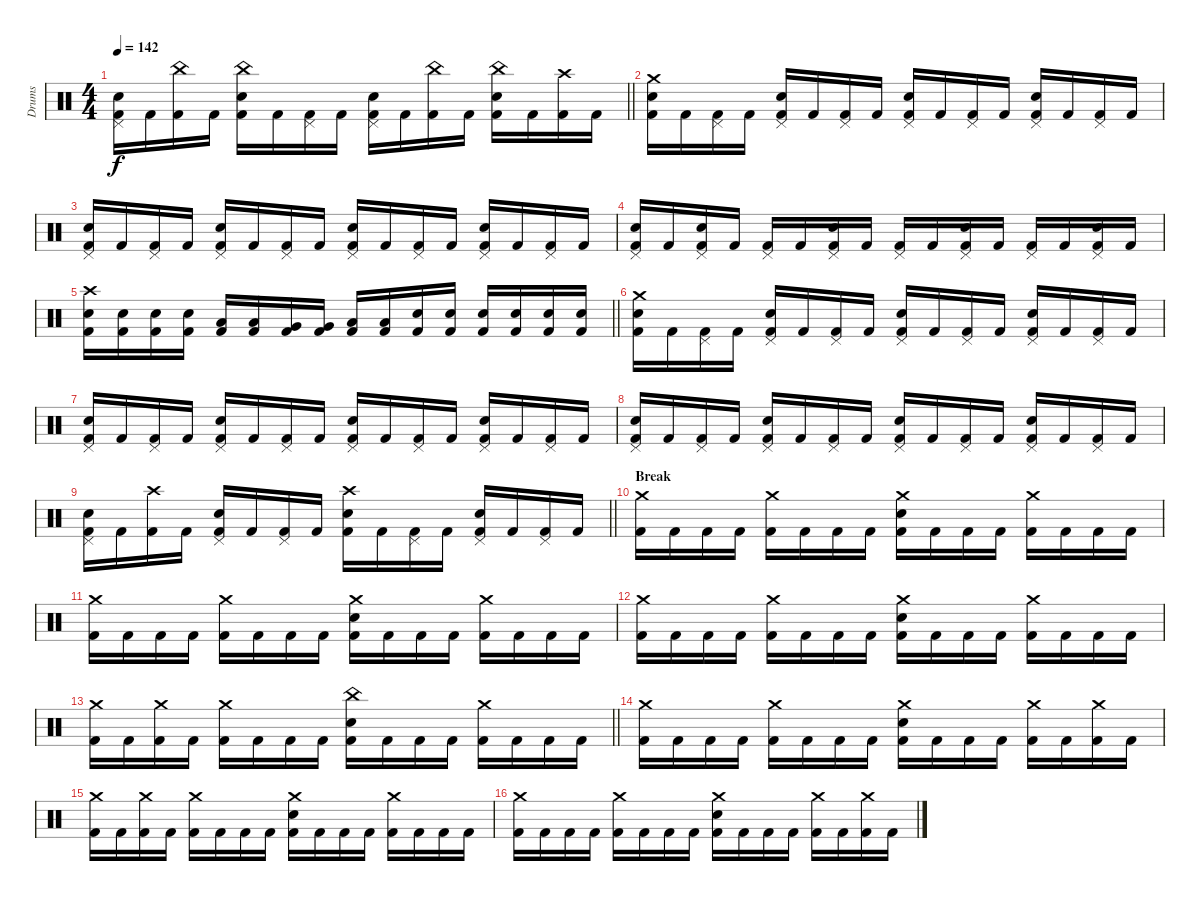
\track ("Drums" "Drums") {instrument percussion}
\staff {score}
\articulation defaults
\ts (4 4)
\tempo 142
\clef neutral
\barLineRight lightlight
\ks c
("Kick (hit) 2" "Snare (hit) 2" "Pedal Hi-Hat (hit)").16{dy f} "Kick (hit) 2".16 ("Kick (hit) 2" "China (hit)").16 "Kick (hit) 2".16 ("Kick (hit) 2" "Snare (hit) 2" "China (hit)").16 "Kick (hit) 2".16 ("Kick (hit) 2" "Pedal Hi-Hat (hit)").16 "Kick (hit) 2".16 ("Kick (hit) 2" "Snare (hit) 2" "Pedal Hi-Hat (hit)").16 "Kick (hit) 2".16 ("Kick (hit) 2" "China (hit)").16 "Kick (hit) 2".16 ("Kick (hit) 2" "Snare (hit) 2" "China (hit)").16 "Kick (hit) 2".16 ("Kick (hit) 2" "Crash high (hit)").16 "Kick (hit) 2".16 |
\section ("" "")
("Kick (hit) 2" "Snare (hit) 2" "Crash medium (hit)").16 "Kick (hit) 2".16 ("Kick (hit) 2" "Pedal Hi-Hat (hit)").16 "Kick (hit) 2".16 ("Kick (hit) 2" "Snare (hit) 2" "Pedal Hi-Hat (hit)").16 "Kick (hit) 2".16 ("Kick (hit) 2" "Pedal Hi-Hat (hit)").16 "Kick (hit) 2".16 ("Kick (hit) 2" "Snare (hit) 2" "Pedal Hi-Hat (hit)").16 "Kick (hit) 2".16 ("Kick (hit) 2" "Pedal Hi-Hat (hit)").16 "Kick (hit) 2".16 ("Kick (hit) 2" "Snare (hit) 2" "Pedal Hi-Hat (hit)").16 "Kick (hit) 2".16 ("Kick (hit) 2" "Pedal Hi-Hat (hit)").16 "Kick (hit) 2".16 |
("Kick (hit) 2" "Snare (hit) 2" "Pedal Hi-Hat (hit)").16 "Kick (hit) 2".16 ("Kick (hit) 2" "Pedal Hi-Hat (hit)").16 "Kick (hit) 2".16 ("Kick (hit) 2" "Snare (hit) 2" "Pedal Hi-Hat (hit)").16 "Kick (hit) 2".16 ("Kick (hit) 2" "Pedal Hi-Hat (hit)").16 "Kick (hit) 2".16 ("Kick (hit) 2" "Snare (hit) 2" "Pedal Hi-Hat (hit)").16 "Kick (hit) 2".16 ("Kick (hit) 2" "Pedal Hi-Hat (hit)").16 "Kick (hit) 2".16 ("Kick (hit) 2" "Snare (hit) 2" "Pedal Hi-Hat (hit)").16 "Kick (hit) 2".16 ("Kick (hit) 2" "Pedal Hi-Hat (hit)").16 "Kick (hit) 2".16 |
("Kick (hit) 2" "Snare (hit) 2" "Pedal Hi-Hat (hit)").16 "Kick (hit) 2".16 ("Kick (hit) 2" "Snare (hit) 2" "Pedal Hi-Hat (hit)").16 "Kick (hit) 2".16 ("Kick (hit) 2" "Pedal Hi-Hat (hit)").16 "Kick (hit) 2".16 ("Kick (hit) 2" "Snare (hit) 2" "Pedal Hi-Hat (hit)").16 "Kick (hit) 2".16 ("Kick (hit) 2" "Pedal Hi-Hat (hit)").16 "Kick (hit) 2".16 ("Kick (hit) 2" "Snare (hit) 2" "Pedal Hi-Hat (hit)").16 "Kick (hit) 2".16 ("Kick (hit) 2" "Pedal Hi-Hat (hit)").16 "Kick (hit) 2".16 ("Kick (hit) 2" "Snare (hit) 2" "Pedal Hi-Hat (hit)").16 "Kick (hit) 2".16 |
\barLineRight lightlight
("Kick (hit) 2" "Snare (hit) 2" "Crash high (hit)").16 ("Kick (hit) 2" "Snare (hit) 2").16 ("Kick (hit) 2" "Snare (hit) 2").16 ("Kick (hit) 2" "Snare (hit) 2").16 ("Kick (hit) 2" "Low Tom (hit)").16 ("Kick (hit) 2" "Low Tom (hit)").16 ("Kick (hit) 2" "Very Low Tom (hit)").16 ("Kick (hit) 2" "Very Low Tom (hit)").16 ("Kick (hit) 2" "Low Floor Tom (hit)").16 ("Kick (hit) 2" "Low Floor Tom (hit)").16 ("Kick (hit) 2" "Snare (hit) 2").16 ("Kick (hit) 2" "Snare (hit) 2").16 ("Kick (hit) 2" "Snare (hit) 2").16 ("Kick (hit) 2" "Snare (hit) 2").16 ("Kick (hit) 2" "Snare (hit) 2").16 ("Kick (hit) 2" "Snare (hit) 2").16 |
\section ("" "")
("Kick (hit) 2" "Snare (hit) 2" "Crash medium (hit)").16 "Kick (hit) 2".16 ("Kick (hit) 2" "Pedal Hi-Hat (hit)").16 "Kick (hit) 2".16 ("Kick (hit) 2" "Snare (hit) 2" "Pedal Hi-Hat (hit)").16 "Kick (hit) 2".16 ("Kick (hit) 2" "Pedal Hi-Hat (hit)").16 "Kick (hit) 2".16 ("Kick (hit) 2" "Snare (hit) 2" "Pedal Hi-Hat (hit)").16 "Kick (hit) 2".16 ("Kick (hit) 2" "Pedal Hi-Hat (hit)").16 "Kick (hit) 2".16 ("Kick (hit) 2" "Snare (hit) 2" "Pedal Hi-Hat (hit)").16 "Kick (hit) 2".16 ("Kick (hit) 2" "Pedal Hi-Hat (hit)").16 "Kick (hit) 2".16 |
("Kick (hit) 2" "Snare (hit) 2" "Pedal Hi-Hat (hit)").16 "Kick (hit) 2".16 ("Kick (hit) 2" "Pedal Hi-Hat (hit)").16 "Kick (hit) 2".16 ("Kick (hit) 2" "Snare (hit) 2" "Pedal Hi-Hat (hit)").16 "Kick (hit) 2".16 ("Kick (hit) 2" "Pedal Hi-Hat (hit)").16 "Kick (hit) 2".16 ("Kick (hit) 2" "Snare (hit) 2" "Pedal Hi-Hat (hit)").16 "Kick (hit) 2".16 ("Kick (hit) 2" "Pedal Hi-Hat (hit)").16 "Kick (hit) 2".16 ("Kick (hit) 2" "Snare (hit) 2" "Pedal Hi-Hat (hit)").16 "Kick (hit) 2".16 ("Kick (hit) 2" "Pedal Hi-Hat (hit)").16 "Kick (hit) 2".16 |
("Kick (hit) 2" "Snare (hit) 2" "Pedal Hi-Hat (hit)").16 "Kick (hit) 2".16 ("Kick (hit) 2" "Pedal Hi-Hat (hit)").16 "Kick (hit) 2".16 ("Kick (hit) 2" "Snare (hit) 2" "Pedal Hi-Hat (hit)").16 "Kick (hit) 2".16 ("Kick (hit) 2" "Pedal Hi-Hat (hit)").16 "Kick (hit) 2".16 ("Kick (hit) 2" "Snare (hit) 2" "Pedal Hi-Hat (hit)").16 "Kick (hit) 2".16 ("Kick (hit) 2" "Pedal Hi-Hat (hit)").16 "Kick (hit) 2".16 ("Kick (hit) 2" "Snare (hit) 2" "Pedal Hi-Hat (hit)").16 "Kick (hit) 2".16 ("Kick (hit) 2" "Pedal Hi-Hat (hit)").16 "Kick (hit) 2".16 |
\barLineRight lightlight
("Kick (hit) 2" "Snare (hit) 2" "Pedal Hi-Hat (hit)").16 "Kick (hit) 2".16 ("Kick (hit) 2" "Crash high (hit)").16 "Kick (hit) 2".16 ("Kick (hit) 2" "Snare (hit) 2" "Pedal Hi-Hat (hit)").16 "Kick (hit) 2".16 ("Kick (hit) 2" "Pedal Hi-Hat (hit)").16 "Kick (hit) 2".16 ("Kick (hit) 2" "Snare (hit) 2" "Crash high (hit)").16 "Kick (hit) 2".16 ("Kick (hit) 2" "Pedal Hi-Hat (hit)").16 "Kick (hit) 2".16 ("Kick (hit) 2" "Snare (hit) 2" "Pedal Hi-Hat (hit)").16 "Kick (hit) 2".16 ("Kick (hit) 2" "Pedal Hi-Hat (hit)").16 "Kick (hit) 2".16 |
\section ("" "Break")
("Kick (hit) 2" "Crash medium (hit)").16 "Kick (hit) 2".16 "Kick (hit) 2".16 "Kick (hit) 2".16 ("Kick (hit) 2" "Crash medium (hit)").16 "Kick (hit) 2".16 "Kick (hit) 2".16 "Kick (hit) 2".16 ("Kick (hit) 2" "Snare (hit) 2" "Crash medium (hit)").16 "Kick (hit) 2".16 "Kick (hit) 2".16 "Kick (hit) 2".16 ("Kick (hit) 2" "Crash medium (hit)").16 "Kick (hit) 2".16 "Kick (hit) 2".16 "Kick (hit) 2".16 |
("Kick (hit) 2" "Crash medium (hit)").16 "Kick (hit) 2".16 "Kick (hit) 2".16 "Kick (hit) 2".16 ("Kick (hit) 2" "Crash medium (hit)").16 "Kick (hit) 2".16 "Kick (hit) 2".16 "Kick (hit) 2".16 ("Kick (hit) 2" "Snare (hit) 2" "Crash medium (hit)").16 "Kick (hit) 2".16 "Kick (hit) 2".16 "Kick (hit) 2".16 ("Kick (hit) 2" "Crash medium (hit)").16 "Kick (hit) 2".16 "Kick (hit) 2".16 "Kick (hit) 2".16 |
("Kick (hit) 2" "Crash medium (hit)").16 "Kick (hit) 2".16 "Kick (hit) 2".16 "Kick (hit) 2".16 ("Kick (hit) 2" "Crash medium (hit)").16 "Kick (hit) 2".16 "Kick (hit) 2".16 "Kick (hit) 2".16 ("Kick (hit) 2" "Snare (hit) 2" "Crash medium (hit)").16 "Kick (hit) 2".16 "Kick (hit) 2".16 "Kick (hit) 2".16 ("Kick (hit) 2" "Crash medium (hit)").16 "Kick (hit) 2".16 "Kick (hit) 2".16 "Kick (hit) 2".16 |
\barLineRight lightlight
("Kick (hit) 2" "Crash medium (hit)").16 "Kick (hit) 2".16 ("Kick (hit) 2" "Crash medium (hit)").16 "Kick (hit) 2".16 ("Kick (hit) 2" "Crash medium (hit)").16 "Kick (hit) 2".16 "Kick (hit) 2".16 "Kick (hit) 2".16 ("Kick (hit) 2" "Snare (hit) 2" "China (hit)").16 "Kick (hit) 2".16 "Kick (hit) 2".16 "Kick (hit) 2".16 ("Kick (hit) 2" "Crash medium (hit)").16 "Kick (hit) 2".16 "Kick (hit) 2".16 "Kick (hit) 2".16 |
\section ("" "")
("Kick (hit) 2" "Crash medium (hit)").16 "Kick (hit) 2".16 "Kick (hit) 2".16 "Kick (hit) 2".16 ("Kick (hit) 2" "Crash medium (hit)").16 "Kick (hit) 2".16 "Kick (hit) 2".16 "Kick (hit) 2".16 ("Kick (hit) 2" "Snare (hit) 2" "Crash medium (hit)").16 "Kick (hit) 2".16 "Kick (hit) 2".16 "Kick (hit) 2".16 ("Kick (hit) 2" "Crash medium (hit)").16 "Kick (hit) 2".16 ("Kick (hit) 2" "Crash medium (hit)").16 "Kick (hit) 2".16 |
("Kick (hit) 2" "Crash medium (hit)").16 "Kick (hit) 2".16 ("Kick (hit) 2" "Crash medium (hit)").16 "Kick (hit) 2".16 ("Kick (hit) 2" "Crash medium (hit)").16 "Kick (hit) 2".16 "Kick (hit) 2".16 "Kick (hit) 2".16 ("Kick (hit) 2" "Snare (hit) 2" "Crash medium (hit)").16 "Kick (hit) 2".16 "Kick (hit) 2".16 "Kick (hit) 2".16 ("Kick (hit) 2" "Crash medium (hit)").16 "Kick (hit) 2".16 "Kick (hit) 2".16 "Kick (hit) 2".16 |
("Kick (hit) 2" "Crash medium (hit)").16 "Kick (hit) 2".16 "Kick (hit) 2".16 "Kick (hit) 2".16 ("Kick (hit) 2" "Crash medium (hit)").16 "Kick (hit) 2".16 "Kick (hit) 2".16 "Kick (hit) 2".16 ("Kick (hit) 2" "Snare (hit) 2" "Crash medium (hit)").16 "Kick (hit) 2".16 "Kick (hit) 2".16 "Kick (hit) 2".16 ("Kick (hit) 2" "Crash medium (hit)").16 "Kick (hit) 2".16 ("Kick (hit) 2" "Crash medium (hit)").16 "Kick (hit) 2".16
